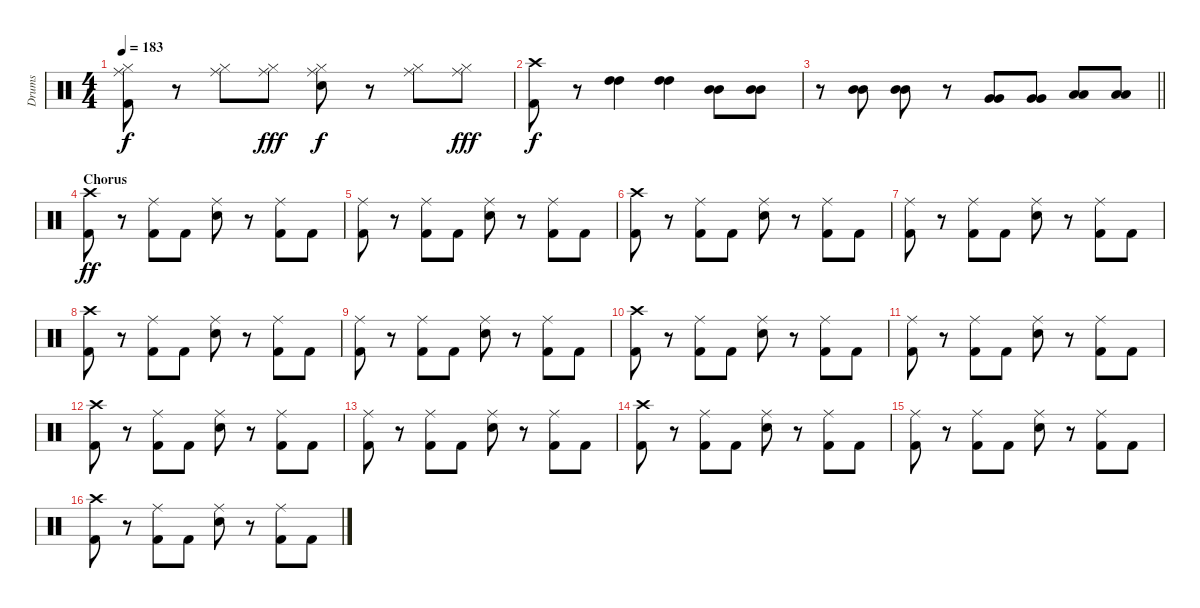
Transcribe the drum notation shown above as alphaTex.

\track ("Drums" "Drums") {instrument percussion}
\staff {score}
\articulation defaults
\ts (4 4)
\tempo 183
\clef neutral
\ks c
("Ride (middle)" "Hi-Hat (closed)" "Kick (hit) 2").8{dy f} r.8 ("Ride (middle)" "Hi-Hat (closed)").8 ("Ride (middle)" "Hi-Hat (closed)").8{dy fff} ("Ride (middle)" "Hi-Hat (closed)" "Snare (hit) 2").8{dy f} r.8 ("Ride (middle)" "Hi-Hat (closed)").8 ("Ride (middle)" "Hi-Hat (closed)").8{dy fff} |
("Crash high (hit)" "Kick (hit) 2").8{dy f} r.8 ("High Tom (hit)" "High Tom (hit)").4 ("High Tom (hit)" "High Tom (hit)").4 ("Mid Tom (hit)" "Mid Tom (hit)").8 ("Mid Tom (hit)" "Mid Tom (hit)").8 |
\barLineRight lightlight
r.8 ("Mid Tom (hit)" "Mid Tom (hit)").8 ("Mid Tom (hit)" "Mid Tom (hit)").8 r.8 ("Very Low Tom (hit)" "Very Low Tom (hit)").8 ("Very Low Tom (hit)" "Very Low Tom (hit)").8 ("Low Floor Tom (hit)" "Low Floor Tom (hit)").8 ("Low Floor Tom (hit)" "Low Floor Tom (hit)").8 |
\section ("" "Chorus")
("Crash high (hit)" "Kick (hit) 2").8{dy ff} r.8 ("Ride (middle)" "Kick (hit) 2").8 "Kick (hit) 2".8 ("Ride (middle)" "Snare (hit) 2").8 r.8 ("Ride (middle)" "Kick (hit) 2").8 "Kick (hit) 2".8 |
("Ride (middle)" "Kick (hit) 2").8 r.8 ("Ride (middle)" "Kick (hit) 2").8 "Kick (hit) 2".8 ("Ride (middle)" "Snare (hit) 2").8 r.8 ("Ride (middle)" "Kick (hit) 2").8 "Kick (hit) 2".8 |
("Crash high (hit)" "Kick (hit) 2").8 r.8 ("Ride (middle)" "Kick (hit) 2").8 "Kick (hit) 2".8 ("Ride (middle)" "Snare (hit) 2").8 r.8 ("Ride (middle)" "Kick (hit) 2").8 "Kick (hit) 2".8 |
("Ride (middle)" "Kick (hit) 2").8 r.8 ("Ride (middle)" "Kick (hit) 2").8 "Kick (hit) 2".8 ("Ride (middle)" "Snare (hit) 2").8 r.8 ("Ride (middle)" "Kick (hit) 2").8 "Kick (hit) 2".8 |
("Crash high (hit)" "Kick (hit) 2").8 r.8 ("Ride (middle)" "Kick (hit) 2").8 "Kick (hit) 2".8 ("Ride (middle)" "Snare (hit) 2").8 r.8 ("Ride (middle)" "Kick (hit) 2").8 "Kick (hit) 2".8 |
("Ride (middle)" "Kick (hit) 2").8 r.8 ("Ride (middle)" "Kick (hit) 2").8 "Kick (hit) 2".8 ("Ride (middle)" "Snare (hit) 2").8 r.8 ("Ride (middle)" "Kick (hit) 2").8 "Kick (hit) 2".8 |
("Crash high (hit)" "Kick (hit) 2").8 r.8 ("Ride (middle)" "Kick (hit) 2").8 "Kick (hit) 2".8 ("Ride (middle)" "Snare (hit) 2").8 r.8 ("Ride (middle)" "Kick (hit) 2").8 "Kick (hit) 2".8 |
("Ride (middle)" "Kick (hit) 2").8 r.8 ("Ride (middle)" "Kick (hit) 2").8 "Kick (hit) 2".8 ("Ride (middle)" "Snare (hit) 2").8 r.8 ("Ride (middle)" "Kick (hit) 2").8 "Kick (hit) 2".8 |
("Crash high (hit)" "Kick (hit) 2").8 r.8 ("Ride (middle)" "Kick (hit) 2").8 "Kick (hit) 2".8 ("Ride (middle)" "Snare (hit) 2").8 r.8 ("Ride (middle)" "Kick (hit) 2").8 "Kick (hit) 2".8 |
("Ride (middle)" "Kick (hit) 2").8 r.8 ("Ride (middle)" "Kick (hit) 2").8 "Kick (hit) 2".8 ("Ride (middle)" "Snare (hit) 2").8 r.8 ("Ride (middle)" "Kick (hit) 2").8 "Kick (hit) 2".8 |
("Crash high (hit)" "Kick (hit) 2").8 r.8 ("Ride (middle)" "Kick (hit) 2").8 "Kick (hit) 2".8 ("Ride (middle)" "Snare (hit) 2").8 r.8 ("Ride (middle)" "Kick (hit) 2").8 "Kick (hit) 2".8 |
("Ride (middle)" "Kick (hit) 2").8 r.8 ("Ride (middle)" "Kick (hit) 2").8 "Kick (hit) 2".8 ("Ride (middle)" "Snare (hit) 2").8 r.8 ("Ride (middle)" "Kick (hit) 2").8 "Kick (hit) 2".8 |
("Crash high (hit)" "Kick (hit) 2").8 r.8 ("Ride (middle)" "Kick (hit) 2").8 "Kick (hit) 2".8 ("Ride (middle)" "Snare (hit) 2").8 r.8 ("Ride (middle)" "Kick (hit) 2").8 "Kick (hit) 2".8
